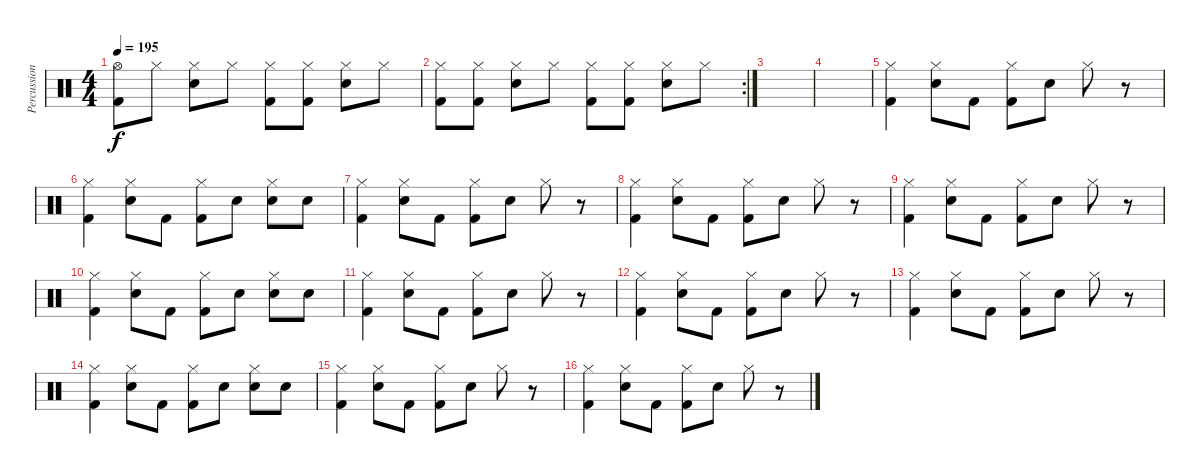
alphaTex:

\track ("Percussion" "Percussion") {instrument percussion}
\staff {score}
\articulation defaults
\ts (4 4)
\tempo 195
\clef neutral
\ks c
("Hi-Hat (open)" "Kick (hit) 2").8{dy f} "Hi-Hat (closed)".8 ("Hi-Hat (closed)" "Snare (hit) 2").8 "Hi-Hat (closed)".8 ("Hi-Hat (closed)" "Kick (hit) 2").8 ("Hi-Hat (closed)" "Kick (hit) 2").8 ("Hi-Hat (closed)" "Snare (hit) 2").8 "Hi-Hat (closed)".8 |
\rc 2
("Hi-Hat (closed)" "Kick (hit) 2").8 ("Hi-Hat (closed)" "Kick (hit) 2").8 ("Hi-Hat (closed)" "Snare (hit) 2").8 "Hi-Hat (closed)".8 ("Hi-Hat (closed)" "Kick (hit) 2").8 ("Hi-Hat (closed)" "Kick (hit) 2").8 ("Hi-Hat (closed)" "Snare (hit) 2").8 "Hi-Hat (closed)".8 |
|
|
("Hi-Hat (closed)" "Kick (hit) 2").4 ("Hi-Hat (closed)" "Snare (hit) 2").8 "Kick (hit) 2".8 ("Hi-Hat (closed)" "Kick (hit) 2").8 "Snare (hit) 2".8 "Hi-Hat (closed)".8 r.8 |
("Hi-Hat (closed)" "Kick (hit) 2").4 ("Hi-Hat (closed)" "Snare (hit) 2").8 "Kick (hit) 2".8 ("Hi-Hat (closed)" "Kick (hit) 2").8 "Snare (hit) 2".8 ("Hi-Hat (closed)" "Snare (hit) 2").8 "Snare (hit) 2".8 |
("Hi-Hat (closed)" "Kick (hit) 2").4 ("Hi-Hat (closed)" "Snare (hit) 2").8 "Kick (hit) 2".8 ("Hi-Hat (closed)" "Kick (hit) 2").8 "Snare (hit) 2".8 "Hi-Hat (closed)".8 r.8 |
("Hi-Hat (closed)" "Kick (hit) 2").4 ("Hi-Hat (closed)" "Snare (hit) 2").8 "Kick (hit) 2".8 ("Hi-Hat (closed)" "Kick (hit) 2").8 "Snare (hit) 2".8 "Hi-Hat (closed)".8 r.8 |
("Hi-Hat (closed)" "Kick (hit) 2").4 ("Hi-Hat (closed)" "Snare (hit) 2").8 "Kick (hit) 2".8 ("Hi-Hat (closed)" "Kick (hit) 2").8 "Snare (hit) 2".8 "Hi-Hat (closed)".8 r.8 |
("Hi-Hat (closed)" "Kick (hit) 2").4 ("Hi-Hat (closed)" "Snare (hit) 2").8 "Kick (hit) 2".8 ("Hi-Hat (closed)" "Kick (hit) 2").8 "Snare (hit) 2".8 ("Hi-Hat (closed)" "Snare (hit) 2").8 "Snare (hit) 2".8 |
("Hi-Hat (closed)" "Kick (hit) 2").4 ("Hi-Hat (closed)" "Snare (hit) 2").8 "Kick (hit) 2".8 ("Hi-Hat (closed)" "Kick (hit) 2").8 "Snare (hit) 2".8 "Hi-Hat (closed)".8 r.8 |
("Hi-Hat (closed)" "Kick (hit) 2").4 ("Hi-Hat (closed)" "Snare (hit) 2").8 "Kick (hit) 2".8 ("Hi-Hat (closed)" "Kick (hit) 2").8 "Snare (hit) 2".8 "Hi-Hat (closed)".8 r.8 |
("Hi-Hat (closed)" "Kick (hit) 2").4 ("Hi-Hat (closed)" "Snare (hit) 2").8 "Kick (hit) 2".8 ("Hi-Hat (closed)" "Kick (hit) 2").8 "Snare (hit) 2".8 "Hi-Hat (closed)".8 r.8 |
("Hi-Hat (closed)" "Kick (hit) 2").4 ("Hi-Hat (closed)" "Snare (hit) 2").8 "Kick (hit) 2".8 ("Hi-Hat (closed)" "Kick (hit) 2").8 "Snare (hit) 2".8 ("Hi-Hat (closed)" "Snare (hit) 2").8 "Snare (hit) 2".8 |
("Hi-Hat (closed)" "Kick (hit) 2").4 ("Hi-Hat (closed)" "Snare (hit) 2").8 "Kick (hit) 2".8 ("Hi-Hat (closed)" "Kick (hit) 2").8 "Snare (hit) 2".8 "Hi-Hat (closed)".8 r.8 |
("Hi-Hat (closed)" "Kick (hit) 2").4 ("Hi-Hat (closed)" "Snare (hit) 2").8 "Kick (hit) 2".8 ("Hi-Hat (closed)" "Kick (hit) 2").8 "Snare (hit) 2".8 "Hi-Hat (closed)".8 r.8
